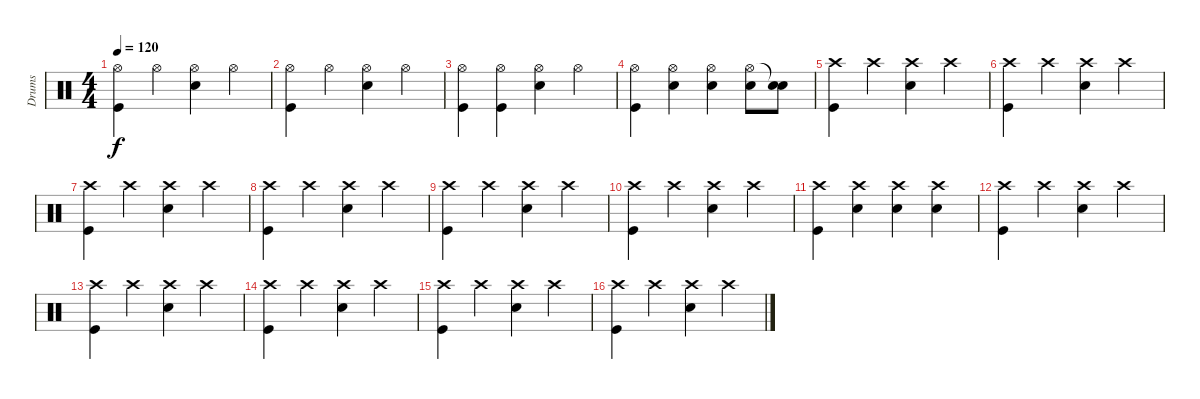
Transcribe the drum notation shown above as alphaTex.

\track ("Drums" "Drums") {instrument percussion}
\staff {score}
\articulation defaults
\ts (4 4)
\tempo 120
\clef neutral
\ks c
("Hi-Hat (open)" "Kick (hit)").4{dy f} "Hi-Hat (open)".4 ("Hi-Hat (open)" "Electric Snare (hit)").4 "Hi-Hat (open)".4 |
("Hi-Hat (open)" "Kick (hit)").4 "Hi-Hat (open)".4 ("Hi-Hat (open)" "Electric Snare (hit)").4 "Hi-Hat (open)".4 |
("Hi-Hat (open)" "Kick (hit)").4 ("Hi-Hat (open)" "Kick (hit)").4 ("Hi-Hat (open)" "Electric Snare (hit)").4 "Hi-Hat (open)".4 |
("Hi-Hat (open)" "Kick (hit)").4 ("Hi-Hat (open)" "Electric Snare (hit)").4 ("Hi-Hat (open)" "Electric Snare (hit)").4 ("Hi-Hat (open)" "Electric Snare (hit)").8 ("Snare (hit)"{t} "Electric Snare (hit)").8 |
("Crash high (hit)" "Kick (hit)").4 "Crash high (hit)".4 ("Crash high (hit)" "Electric Snare (hit)").4 "Crash high (hit)".4 |
("Crash high (hit)" "Kick (hit)").4 "Crash high (hit)".4 ("Crash high (hit)" "Electric Snare (hit)").4 "Crash high (hit)".4 |
("Crash high (hit)" "Kick (hit)").4 "Crash high (hit)".4 ("Crash high (hit)" "Electric Snare (hit)").4 "Crash high (hit)".4 |
("Crash high (hit)" "Kick (hit)").4 "Crash high (hit)".4 ("Crash high (hit)" "Electric Snare (hit)").4 "Crash high (hit)".4 |
("Crash high (hit)" "Kick (hit)").4 "Crash high (hit)".4 ("Crash high (hit)" "Electric Snare (hit)").4 "Crash high (hit)".4 |
("Crash high (hit)" "Kick (hit)").4 "Crash high (hit)".4 ("Crash high (hit)" "Electric Snare (hit)").4 "Crash high (hit)".4 |
("Crash high (hit)" "Kick (hit)").4 ("Crash high (hit)" "Electric Snare (hit)").4 ("Crash high (hit)" "Electric Snare (hit)").4 ("Crash high (hit)" "Electric Snare (hit)").4 |
("Crash high (hit)" "Kick (hit)").4 "Crash high (hit)".4 ("Crash high (hit)" "Electric Snare (hit)").4 "Crash high (hit)".4 |
("Crash high (hit)" "Kick (hit)").4 "Crash high (hit)".4 ("Crash high (hit)" "Electric Snare (hit)").4 "Crash high (hit)".4 |
("Crash high (hit)" "Kick (hit)").4 "Crash high (hit)".4 ("Crash high (hit)" "Electric Snare (hit)").4 "Crash high (hit)".4 |
("Crash high (hit)" "Kick (hit)").4 "Crash high (hit)".4 ("Crash high (hit)" "Electric Snare (hit)").4 "Crash high (hit)".4 |
("Crash high (hit)" "Kick (hit)").4 "Crash high (hit)".4 ("Crash high (hit)" "Electric Snare (hit)").4 "Crash high (hit)".4
